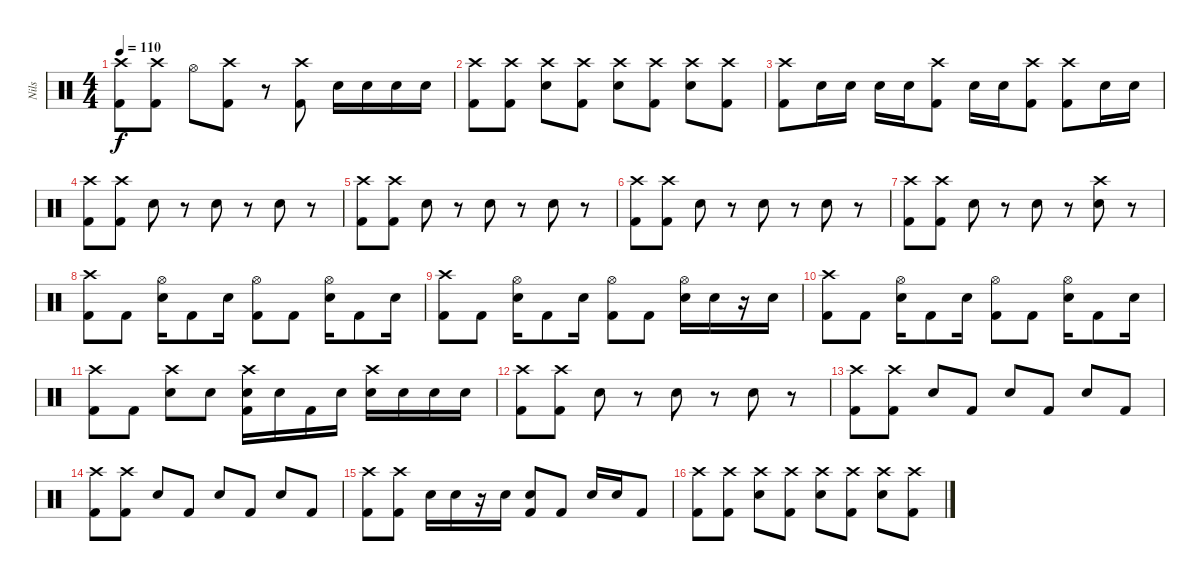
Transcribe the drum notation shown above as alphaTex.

\track ("Nils" "Nils") {instrument percussion}
\staff {score}
\articulation defaults
\ts (4 4)
\tempo 110
\clef neutral
\ks c
("Crash high (hit)" "Kick (hit) 2").8{dy f} ("Crash high (hit)" "Kick (hit) 2").8 "Hi-Hat (open)".8 ("Crash high (hit)" "Kick (hit) 2").8 r.8 ("Crash high (hit)" "Kick (hit) 2").8 "Snare (hit) 2".16 "Snare (hit) 2".16 "Snare (hit) 2".16 "Snare (hit) 2".16 |
("Crash high (hit)" "Kick (hit) 2").8 ("Crash high (hit)" "Kick (hit) 2").8 ("Crash high (hit)" "Snare (hit) 2").8 ("Crash high (hit)" "Kick (hit) 2").8 ("Crash high (hit)" "Snare (hit) 2").8 ("Crash high (hit)" "Kick (hit) 2").8 ("Crash high (hit)" "Snare (hit) 2").8 ("Crash high (hit)" "Kick (hit) 2").8 |
("Crash high (hit)" "Kick (hit) 2").8 "Snare (hit) 2".16 "Snare (hit) 2".16 "Snare (hit) 2".16 "Snare (hit) 2".16 ("Crash high (hit)" "Kick (hit) 2").8 "Snare (hit) 2".16 "Snare (hit) 2".16 ("Crash high (hit)" "Kick (hit) 2").8 ("Crash high (hit)" "Kick (hit) 2").8 "Snare (hit) 2".16 "Snare (hit) 2".16 |
("Crash high (hit)" "Kick (hit) 2").8 ("Crash high (hit)" "Kick (hit) 2").8 "Snare (hit) 2".8 r.8 "Snare (hit) 2".8 r.8 "Snare (hit) 2".8 r.8 |
("Crash high (hit)" "Kick (hit) 2").8 ("Crash high (hit)" "Kick (hit) 2").8 "Snare (hit) 2".8 r.8 "Snare (hit) 2".8 r.8 "Snare (hit) 2".8 r.8 |
("Crash high (hit)" "Kick (hit) 2").8 ("Crash high (hit)" "Kick (hit) 2").8 "Snare (hit) 2".8 r.8 "Snare (hit) 2".8 r.8 "Snare (hit) 2".8 r.8 |
("Crash high (hit)" "Kick (hit) 2").8 ("Crash high (hit)" "Kick (hit) 2").8 "Snare (hit) 2".8 r.8 "Snare (hit) 2".8 r.8 ("Crash high (hit)" "Snare (hit) 2").8 r.8 |
("Crash high (hit)" "Kick (hit) 2").8 "Kick (hit) 2".8 ("Hi-Hat (open)" "Snare (hit) 2").16 "Kick (hit) 2".8 "Snare (hit) 2".16 ("Hi-Hat (open)" "Kick (hit) 2").8 "Kick (hit) 2".8 ("Hi-Hat (open)" "Snare (hit) 2").16 "Kick (hit) 2".8 "Snare (hit) 2".16 |
("Crash high (hit)" "Kick (hit) 2").8 "Kick (hit) 2".8 ("Hi-Hat (open)" "Snare (hit) 2").16 "Kick (hit) 2".8 "Snare (hit) 2".16 ("Hi-Hat (open)" "Kick (hit) 2").8 "Kick (hit) 2".8 ("Hi-Hat (open)" "Snare (hit) 2").16 "Snare (hit) 2".16 r.16 "Snare (hit) 2".16 |
("Crash high (hit)" "Kick (hit) 2").8 "Kick (hit) 2".8 ("Hi-Hat (open)" "Snare (hit) 2").16 "Kick (hit) 2".8 "Snare (hit) 2".16 ("Hi-Hat (open)" "Kick (hit) 2").8 "Kick (hit) 2".8 ("Hi-Hat (open)" "Snare (hit) 2").16 "Kick (hit) 2".8 "Snare (hit) 2".16 |
("Crash high (hit)" "Kick (hit) 2").8 "Kick (hit) 2".8 ("Crash high (hit)" "Snare (hit) 2").8 "Snare (hit) 2".8 ("Crash high (hit)" "Snare (hit) 2" "Kick (hit) 2").16 "Snare (hit) 2".16 "Kick (hit) 2".16 "Snare (hit) 2".16 ("Crash high (hit)" "Snare (hit) 2").16 "Snare (hit) 2".16 "Snare (hit) 2".16 "Snare (hit) 2".16 |
("Crash high (hit)" "Kick (hit) 2").8 ("Crash high (hit)" "Kick (hit) 2").8 "Snare (hit) 2".8 r.8 "Snare (hit) 2".8 r.8 "Snare (hit) 2".8 r.8 |
("Crash high (hit)" "Kick (hit) 2").8 ("Crash high (hit)" "Kick (hit) 2").8 "Snare (hit) 2".8 "Kick (hit) 2".8 "Snare (hit) 2".8 "Kick (hit) 2".8 "Snare (hit) 2".8 "Kick (hit) 2".8 |
("Crash high (hit)" "Kick (hit) 2").8 ("Crash high (hit)" "Kick (hit) 2").8 "Snare (hit) 2".8 "Kick (hit) 2".8 "Snare (hit) 2".8 "Kick (hit) 2".8 "Snare (hit) 2".8 "Kick (hit) 2".8 |
("Crash high (hit)" "Kick (hit) 2").8 ("Crash high (hit)" "Kick (hit) 2").8 "Snare (hit) 2".16 "Snare (hit) 2".16 r.16 "Snare (hit) 2".16 ("Snare (hit) 2" "Kick (hit) 2").8 "Kick (hit) 2".8 "Snare (hit) 2".16 "Snare (hit) 2".16 "Kick (hit) 2".8 |
("Crash high (hit)" "Kick (hit) 2").8 ("Crash high (hit)" "Kick (hit) 2").8 ("Crash high (hit)" "Snare (hit) 2").8 ("Crash high (hit)" "Kick (hit) 2").8 ("Crash high (hit)" "Snare (hit) 2").8 ("Crash high (hit)" "Kick (hit) 2").8 ("Crash high (hit)" "Snare (hit) 2").8 ("Crash high (hit)" "Kick (hit) 2").8
